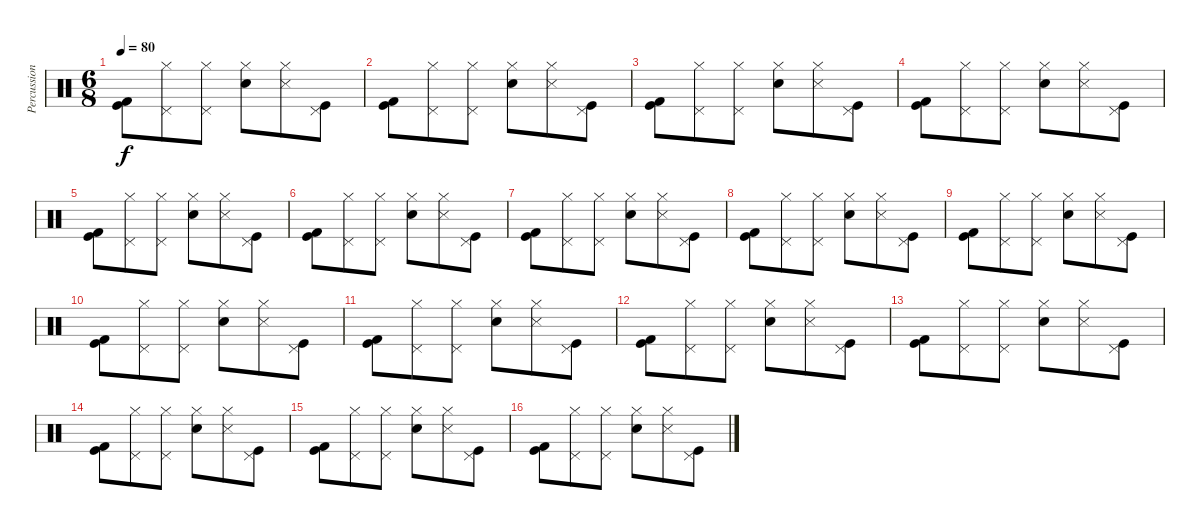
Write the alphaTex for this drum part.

\track ("Percussion" "Percussion") {instrument percussion}
\staff {score}
\articulation defaults
\ts (6 8)
\tempo 80
\clef neutral
\ks c
("Kick (hit)" "Kick (hit) 2").8{dy f} ("Hi-Hat (closed)" "Pedal Hi-Hat (hit)").8 ("Hi-Hat (closed)" "Pedal Hi-Hat (hit)").8 ("Hi-Hat (closed)" "Snare (hit) 2").8 ("Hi-Hat (closed)" "Snare (side stick) 3").8 ("Kick (hit)" "Pedal Hi-Hat (hit)").8 |
("Kick (hit)" "Kick (hit) 2").8 ("Hi-Hat (closed)" "Pedal Hi-Hat (hit)").8 ("Hi-Hat (closed)" "Pedal Hi-Hat (hit)").8 ("Hi-Hat (closed)" "Snare (hit) 2").8 ("Hi-Hat (closed)" "Snare (side stick) 3").8 ("Kick (hit)" "Pedal Hi-Hat (hit)").8 |
("Kick (hit)" "Kick (hit) 2").8 ("Hi-Hat (closed)" "Pedal Hi-Hat (hit)").8 ("Hi-Hat (closed)" "Pedal Hi-Hat (hit)").8 ("Hi-Hat (closed)" "Snare (hit) 2").8 ("Hi-Hat (closed)" "Snare (side stick) 3").8 ("Kick (hit)" "Pedal Hi-Hat (hit)").8 |
("Kick (hit)" "Kick (hit) 2").8 ("Hi-Hat (closed)" "Pedal Hi-Hat (hit)").8 ("Hi-Hat (closed)" "Pedal Hi-Hat (hit)").8 ("Hi-Hat (closed)" "Snare (hit) 2").8 ("Hi-Hat (closed)" "Snare (side stick) 3").8 ("Kick (hit)" "Pedal Hi-Hat (hit)").8 |
("Kick (hit)" "Kick (hit) 2").8 ("Hi-Hat (closed)" "Pedal Hi-Hat (hit)").8 ("Hi-Hat (closed)" "Pedal Hi-Hat (hit)").8 ("Hi-Hat (closed)" "Snare (hit) 2").8 ("Hi-Hat (closed)" "Snare (side stick) 3").8 ("Kick (hit)" "Pedal Hi-Hat (hit)").8 |
("Kick (hit)" "Kick (hit) 2").8 ("Hi-Hat (closed)" "Pedal Hi-Hat (hit)").8 ("Hi-Hat (closed)" "Pedal Hi-Hat (hit)").8 ("Hi-Hat (closed)" "Snare (hit) 2").8 ("Hi-Hat (closed)" "Snare (side stick) 3").8 ("Kick (hit)" "Pedal Hi-Hat (hit)").8 |
("Kick (hit)" "Kick (hit) 2").8 ("Hi-Hat (closed)" "Pedal Hi-Hat (hit)").8 ("Hi-Hat (closed)" "Pedal Hi-Hat (hit)").8 ("Hi-Hat (closed)" "Snare (hit) 2").8 ("Hi-Hat (closed)" "Snare (side stick) 3").8 ("Kick (hit)" "Pedal Hi-Hat (hit)").8 |
("Kick (hit)" "Kick (hit) 2").8 ("Hi-Hat (closed)" "Pedal Hi-Hat (hit)").8 ("Hi-Hat (closed)" "Pedal Hi-Hat (hit)").8 ("Hi-Hat (closed)" "Snare (hit) 2").8 ("Hi-Hat (closed)" "Snare (side stick) 3").8 ("Kick (hit)" "Pedal Hi-Hat (hit)").8 |
("Kick (hit)" "Kick (hit) 2").8 ("Hi-Hat (closed)" "Pedal Hi-Hat (hit)").8 ("Hi-Hat (closed)" "Pedal Hi-Hat (hit)").8 ("Hi-Hat (closed)" "Snare (hit) 2").8 ("Hi-Hat (closed)" "Snare (side stick) 3").8 ("Kick (hit)" "Pedal Hi-Hat (hit)").8 |
("Kick (hit)" "Kick (hit) 2").8 ("Hi-Hat (closed)" "Pedal Hi-Hat (hit)").8 ("Hi-Hat (closed)" "Pedal Hi-Hat (hit)").8 ("Hi-Hat (closed)" "Snare (hit) 2").8 ("Hi-Hat (closed)" "Snare (side stick) 3").8 ("Kick (hit)" "Pedal Hi-Hat (hit)").8 |
("Kick (hit)" "Kick (hit) 2").8 ("Hi-Hat (closed)" "Pedal Hi-Hat (hit)").8 ("Hi-Hat (closed)" "Pedal Hi-Hat (hit)").8 ("Hi-Hat (closed)" "Snare (hit) 2").8 ("Hi-Hat (closed)" "Snare (side stick) 3").8 ("Kick (hit)" "Pedal Hi-Hat (hit)").8 |
("Kick (hit)" "Kick (hit) 2").8 ("Hi-Hat (closed)" "Pedal Hi-Hat (hit)").8 ("Hi-Hat (closed)" "Pedal Hi-Hat (hit)").8 ("Hi-Hat (closed)" "Snare (hit) 2").8 ("Hi-Hat (closed)" "Snare (side stick) 3").8 ("Kick (hit)" "Pedal Hi-Hat (hit)").8 |
("Kick (hit)" "Kick (hit) 2").8 ("Hi-Hat (closed)" "Pedal Hi-Hat (hit)").8 ("Hi-Hat (closed)" "Pedal Hi-Hat (hit)").8 ("Hi-Hat (closed)" "Snare (hit) 2").8 ("Hi-Hat (closed)" "Snare (side stick) 3").8 ("Kick (hit)" "Pedal Hi-Hat (hit)").8 |
("Kick (hit)" "Kick (hit) 2").8 ("Hi-Hat (closed)" "Pedal Hi-Hat (hit)").8 ("Hi-Hat (closed)" "Pedal Hi-Hat (hit)").8 ("Hi-Hat (closed)" "Snare (hit) 2").8 ("Hi-Hat (closed)" "Snare (side stick) 3").8 ("Kick (hit)" "Pedal Hi-Hat (hit)").8 |
("Kick (hit)" "Kick (hit) 2").8 ("Hi-Hat (closed)" "Pedal Hi-Hat (hit)").8 ("Hi-Hat (closed)" "Pedal Hi-Hat (hit)").8 ("Hi-Hat (closed)" "Snare (hit) 2").8 ("Hi-Hat (closed)" "Snare (side stick) 3").8 ("Kick (hit)" "Pedal Hi-Hat (hit)").8 |
("Kick (hit)" "Kick (hit) 2").8 ("Hi-Hat (closed)" "Pedal Hi-Hat (hit)").8 ("Hi-Hat (closed)" "Pedal Hi-Hat (hit)").8 ("Hi-Hat (closed)" "Snare (hit) 2").8 ("Hi-Hat (closed)" "Snare (side stick) 3").8 ("Kick (hit)" "Pedal Hi-Hat (hit)").8
